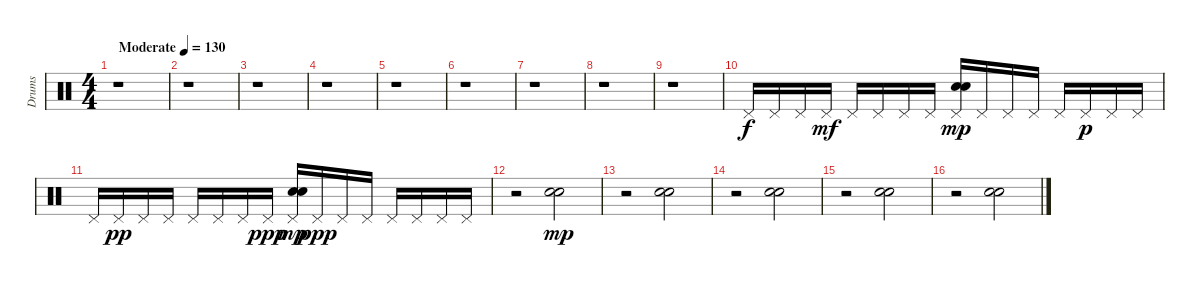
\track ("Drums" "Drums") {instrument percussion}
\staff {score}
\articulation defaults
\ts (4 4)
\tempo (130 "Moderate")
\clef neutral
\ks c
r.1{dy f} |
r.1 |
r.1 |
r.1 |
r.1 |
r.1 |
r.1 |
r.1 |
r.1 |
"Pedal Hi-Hat (hit)".16 "Pedal Hi-Hat (hit)".16 "Pedal Hi-Hat (hit)".16 "Pedal Hi-Hat (hit)".16{dy mf} "Pedal Hi-Hat (hit)".16 "Pedal Hi-Hat (hit)".16 "Pedal Hi-Hat (hit)".16 "Pedal Hi-Hat (hit)".16 ("Pedal Hi-Hat (hit)" "Hand Clap (hit)" "Electric Snare (hit)").16{dy mp} "Pedal Hi-Hat (hit)".16 "Pedal Hi-Hat (hit)".16 "Pedal Hi-Hat (hit)".16 "Pedal Hi-Hat (hit)".16 "Pedal Hi-Hat (hit)".16{dy p} "Pedal Hi-Hat (hit)".16 "Pedal Hi-Hat (hit)".16 |
"Pedal Hi-Hat (hit)".16 "Pedal Hi-Hat (hit)".16{dy pp} "Pedal Hi-Hat (hit)".16 "Pedal Hi-Hat (hit)".16 "Pedal Hi-Hat (hit)".16 "Pedal Hi-Hat (hit)".16 "Pedal Hi-Hat (hit)".16 "Pedal Hi-Hat (hit)".16{dy ppp} ("Pedal Hi-Hat (hit)" "Hand Clap (hit)" "Electric Snare (hit)").16{dy mp} "Pedal Hi-Hat (hit)".16{dy ppp} "Pedal Hi-Hat (hit)".16 "Pedal Hi-Hat (hit)".16 "Pedal Hi-Hat (hit)".16 "Pedal Hi-Hat (hit)".16 "Pedal Hi-Hat (hit)".16 "Pedal Hi-Hat (hit)".16 |
r.2 ("Hand Clap (hit)" "Electric Snare (hit)").2{dy mp} |
r.2 ("Hand Clap (hit)" "Electric Snare (hit)").2 |
r.2 ("Hand Clap (hit)" "Electric Snare (hit)").2 |
r.2 ("Hand Clap (hit)" "Electric Snare (hit)").2 |
r.2 ("Hand Clap (hit)" "Electric Snare (hit)").2
